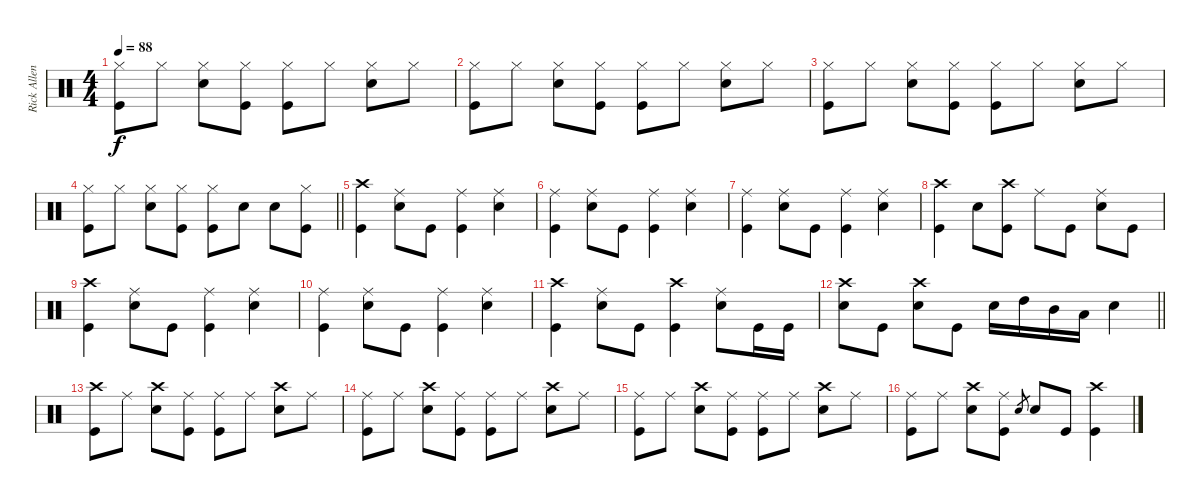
\track ("Rick Allen" "Rick Allen") {instrument percussion}
\staff {score}
\articulation defaults
\ts (4 4)
\tempo 88
\clef neutral
\ks c
("Hi-Hat (closed)" "Kick (hit)").8{dy f} "Hi-Hat (closed)".8 ("Hi-Hat (closed)" "Snare (hit) 2").8 ("Hi-Hat (closed)" "Kick (hit)").8 ("Hi-Hat (closed)" "Kick (hit)").8 "Hi-Hat (closed)".8 ("Hi-Hat (closed)" "Snare (hit) 2").8 "Hi-Hat (closed)".8 |
("Hi-Hat (closed)" "Kick (hit)").8 "Hi-Hat (closed)".8 ("Hi-Hat (closed)" "Snare (hit) 2").8 ("Hi-Hat (closed)" "Kick (hit)").8 ("Hi-Hat (closed)" "Kick (hit)").8 "Hi-Hat (closed)".8 ("Hi-Hat (closed)" "Snare (hit) 2").8 "Hi-Hat (closed)".8 |
("Hi-Hat (closed)" "Kick (hit)").8 "Hi-Hat (closed)".8 ("Hi-Hat (closed)" "Snare (hit) 2").8 ("Hi-Hat (closed)" "Kick (hit)").8 ("Hi-Hat (closed)" "Kick (hit)").8 "Hi-Hat (closed)".8 ("Hi-Hat (closed)" "Snare (hit) 2").8 "Hi-Hat (closed)".8 |
\barLineRight lightlight
("Hi-Hat (closed)" "Kick (hit)").8 "Hi-Hat (closed)".8 ("Hi-Hat (closed)" "Snare (hit) 2").8 ("Hi-Hat (closed)" "Kick (hit)").8 ("Hi-Hat (closed)" "Kick (hit)").8 "Snare (hit) 2".8 "Snare (hit) 2".8 ("Hi-Hat (closed)" "Kick (hit)").8 |
("Crash high (hit)" "Kick (hit)").4 ("Ride (middle)" "Snare (hit) 2").8 "Kick (hit)".8 ("Ride (middle)" "Kick (hit)").4 ("Ride (middle)" "Snare (hit) 2").4 |
("Ride (middle)" "Kick (hit)").4 ("Ride (middle)" "Snare (hit) 2").8 "Kick (hit)".8 ("Ride (middle)" "Kick (hit)").4 ("Ride (middle)" "Snare (hit) 2").4 |
("Ride (middle)" "Kick (hit)").4 ("Ride (middle)" "Snare (hit) 2").8 "Kick (hit)".8 ("Ride (middle)" "Kick (hit)").4 ("Ride (middle)" "Snare (hit) 2").4 |
("Crash high (hit)" "Kick (hit)").4 "Snare (hit) 2".8 ("Crash high (hit)" "Kick (hit)").8 "Ride (middle)".8 "Kick (hit)".8 ("Ride (middle)" "Snare (hit) 2").8 "Kick (hit)".8 |
("Crash high (hit)" "Kick (hit)").4 ("Ride (middle)" "Snare (hit) 2").8 "Kick (hit)".8 ("Ride (middle)" "Kick (hit)").4 ("Ride (middle)" "Snare (hit) 2").4 |
("Ride (middle)" "Kick (hit)").4 ("Ride (middle)" "Snare (hit) 2").8 "Kick (hit)".8 ("Ride (middle)" "Kick (hit)").4 ("Ride (middle)" "Snare (hit) 2").4 |
("Crash high (hit)" "Kick (hit)").4 ("Ride (middle)" "Snare (hit) 2").8 "Kick (hit)".8 ("Crash high (hit)" "Kick (hit)").4 ("Ride (middle)" "Snare (hit) 2").8 "Kick (hit)".16 "Kick (hit)".16 |
\barLineRight lightlight
("Crash high (hit)" "Snare (hit) 2").8 "Kick (hit)".8 ("Crash high (hit)" "Snare (hit) 2").8 "Kick (hit)".8 "Snare (hit) 2".16 "High Tom (hit)".16 "Mid Tom (hit)".16 "Low Tom (hit)".16 "Snare (hit) 2".4 |
("Crash high (hit)" "Kick (hit)").8 "Ride (middle)".8 ("Crash high (hit)" "Snare (hit) 2").8 ("Ride (middle)" "Kick (hit)").8 ("Ride (middle)" "Kick (hit)").8 "Ride (middle)".8 ("Crash high (hit)" "Snare (hit) 2").8 "Ride (middle)".8 |
("Ride (middle)" "Kick (hit)").8 "Ride (middle)".8 ("Crash high (hit)" "Snare (hit) 2").8 ("Ride (middle)" "Kick (hit)").8 ("Ride (middle)" "Kick (hit)").8 "Ride (middle)".8 ("Crash high (hit)" "Snare (hit) 2").8 "Ride (middle)".8 |
("Ride (middle)" "Kick (hit)").8 "Ride (middle)".8 ("Crash high (hit)" "Snare (hit) 2").8 ("Ride (middle)" "Kick (hit)").8 ("Ride (middle)" "Kick (hit)").8 "Ride (middle)".8 ("Crash high (hit)" "Snare (hit) 2").8 "Ride (middle)".8 |
("Ride (middle)" "Kick (hit)").8 "Ride (middle)".8 ("Crash high (hit)" "Snare (hit) 2").8 ("Ride (middle)" "Kick (hit)").8 "Snare (hit) 2".8{gr} "Snare (hit) 2".8 "Kick (hit)".8 ("Crash high (hit)" "Kick (hit)").4
